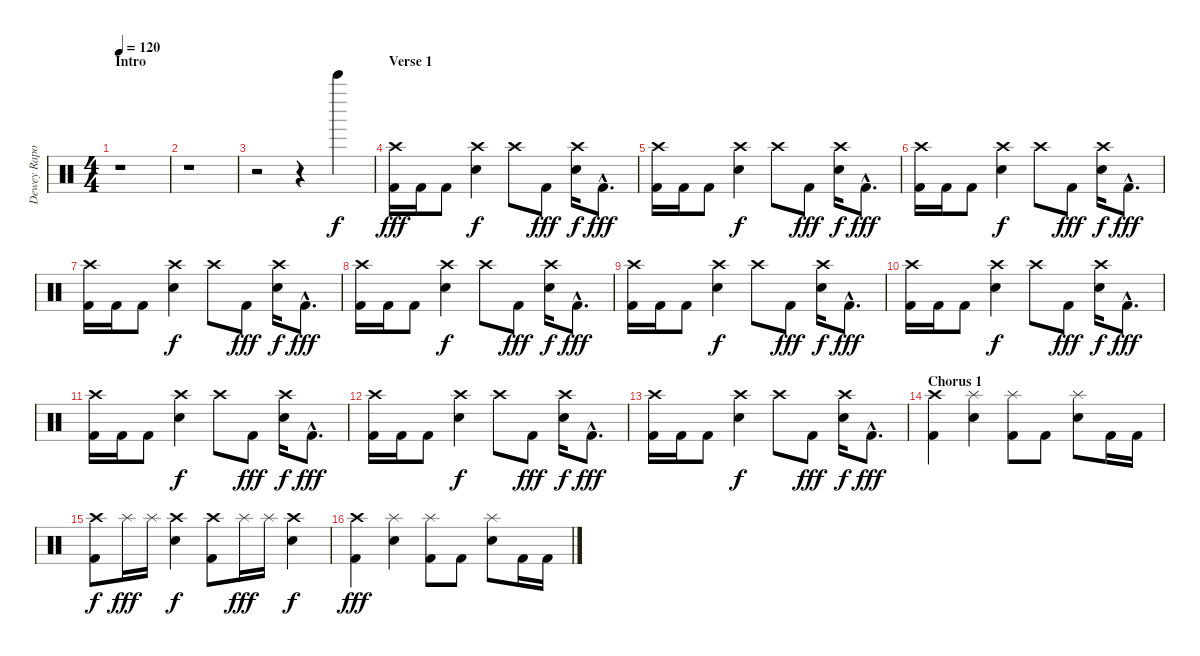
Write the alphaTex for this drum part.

\track ("Dewey Raposo" "Dewey Rapo") {instrument percussion}
\staff {score}
\articulation defaults
\ts (4 4)
\section ("" "Intro")
\tempo 120
\clef neutral
\ks c
r.1{dy f} |
r.1 |
r.2 r.4 "Bell Tree (hit)".4 |
\section ("" "Verse 1")
("Crash high (hit)" "Kick (hit) 2").16{dy fff} "Kick (hit) 2".16 "Kick (hit) 2".8 ("Crash high (hit)" "Electric Snare (hit)").4{dy f} "Crash high (hit)".8 "Kick (hit) 2".8{dy fff} ("Crash high (hit)" "Electric Snare (hit)").16{dy f} "Kick (hit) 2"{hac}.8{d dy fff} |
("Crash high (hit)" "Kick (hit) 2").16 "Kick (hit) 2".16 "Kick (hit) 2".8 ("Crash high (hit)" "Electric Snare (hit)").4{dy f} "Crash high (hit)".8 "Kick (hit) 2".8{dy fff} ("Crash high (hit)" "Electric Snare (hit)").16{dy f} "Kick (hit) 2"{hac}.8{d dy fff} |
("Crash high (hit)" "Kick (hit) 2").16 "Kick (hit) 2".16 "Kick (hit) 2".8 ("Crash high (hit)" "Electric Snare (hit)").4{dy f} "Crash high (hit)".8 "Kick (hit) 2".8{dy fff} ("Crash high (hit)" "Electric Snare (hit)").16{dy f} "Kick (hit) 2"{hac}.8{d dy fff} |
("Crash high (hit)" "Kick (hit) 2").16 "Kick (hit) 2".16 "Kick (hit) 2".8 ("Crash high (hit)" "Electric Snare (hit)").4{dy f} "Crash high (hit)".8 "Kick (hit) 2".8{dy fff} ("Crash high (hit)" "Electric Snare (hit)").16{dy f} "Kick (hit) 2"{hac}.8{d dy fff} |
("Crash high (hit)" "Kick (hit) 2").16 "Kick (hit) 2".16 "Kick (hit) 2".8 ("Crash high (hit)" "Electric Snare (hit)").4{dy f} "Crash high (hit)".8 "Kick (hit) 2".8{dy fff} ("Crash high (hit)" "Electric Snare (hit)").16{dy f} "Kick (hit) 2"{hac}.8{d dy fff} |
("Crash high (hit)" "Kick (hit) 2").16 "Kick (hit) 2".16 "Kick (hit) 2".8 ("Crash high (hit)" "Electric Snare (hit)").4{dy f} "Crash high (hit)".8 "Kick (hit) 2".8{dy fff} ("Crash high (hit)" "Electric Snare (hit)").16{dy f} "Kick (hit) 2"{hac}.8{d dy fff} |
("Crash high (hit)" "Kick (hit) 2").16 "Kick (hit) 2".16 "Kick (hit) 2".8 ("Crash high (hit)" "Electric Snare (hit)").4{dy f} "Crash high (hit)".8 "Kick (hit) 2".8{dy fff} ("Crash high (hit)" "Electric Snare (hit)").16{dy f} "Kick (hit) 2"{hac}.8{d dy fff} |
("Crash high (hit)" "Kick (hit) 2").16 "Kick (hit) 2".16 "Kick (hit) 2".8 ("Crash high (hit)" "Electric Snare (hit)").4{dy f} "Crash high (hit)".8 "Kick (hit) 2".8{dy fff} ("Crash high (hit)" "Electric Snare (hit)").16{dy f} "Kick (hit) 2"{hac}.8{d dy fff} |
("Crash high (hit)" "Kick (hit) 2").16 "Kick (hit) 2".16 "Kick (hit) 2".8 ("Crash high (hit)" "Electric Snare (hit)").4{dy f} "Crash high (hit)".8 "Kick (hit) 2".8{dy fff} ("Crash high (hit)" "Electric Snare (hit)").16{dy f} "Kick (hit) 2"{hac}.8{d dy fff} |
("Crash high (hit)" "Kick (hit) 2").16 "Kick (hit) 2".16 "Kick (hit) 2".8 ("Crash high (hit)" "Electric Snare (hit)").4{dy f} "Crash high (hit)".8 "Kick (hit) 2".8{dy fff} ("Crash high (hit)" "Electric Snare (hit)").16{dy f} "Kick (hit) 2"{hac}.8{d dy fff} |
\section ("" "Chorus 1")
("Crash high (hit)" "Kick (hit) 2").4 ("Splash (hit)" "Electric Snare (hit)").4 ("Splash (hit)" "Kick (hit) 2").8 "Kick (hit) 2".8 ("Splash (hit)" "Electric Snare (hit)").8 "Kick (hit) 2".16 "Kick (hit) 2".16 |
("Crash high (hit)" "Kick (hit) 2").8{dy f} "Splash (hit)".16{dy fff} "Splash (hit)".16 ("Crash high (hit)" "Electric Snare (hit)").4{dy f} ("Crash high (hit)" "Kick (hit) 2").8 "Splash (hit)".16{dy fff} "Splash (hit)".16 ("Crash high (hit)" "Electric Snare (hit)").4{dy f} |
("Crash high (hit)" "Kick (hit) 2").4{dy fff} ("Splash (hit)" "Electric Snare (hit)").4 ("Splash (hit)" "Kick (hit) 2").8 "Kick (hit) 2".8 ("Splash (hit)" "Electric Snare (hit)").8 "Kick (hit) 2".16 "Kick (hit) 2".16
